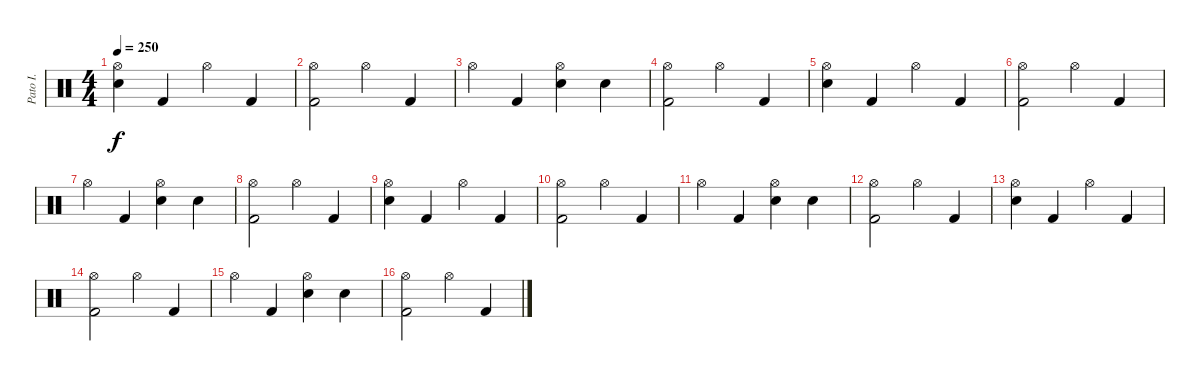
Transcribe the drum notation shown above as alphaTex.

\track ("Pato I." "Pato I.") {instrument percussion}
\staff {score}
\articulation defaults
\ts (4 4)
\tempo 250
\clef neutral
\ks c
("Hi-Hat (open)" "Snare (hit) 2").4{dy f} "Kick (hit) 2".4 "Hi-Hat (open)".4 "Kick (hit) 2".4 |
("Hi-Hat (open)" "Kick (hit) 2").2 "Hi-Hat (open)".4 "Kick (hit) 2".4 |
"Hi-Hat (open)".4 "Kick (hit) 2".4 ("Hi-Hat (open)" "Snare (hit) 2").4 "Snare (hit) 2".4 |
("Hi-Hat (open)" "Kick (hit) 2").2 "Hi-Hat (open)".4 "Kick (hit) 2".4 |
("Hi-Hat (open)" "Snare (hit) 2").4 "Kick (hit) 2".4 "Hi-Hat (open)".4 "Kick (hit) 2".4 |
("Hi-Hat (open)" "Kick (hit) 2").2 "Hi-Hat (open)".4 "Kick (hit) 2".4 |
"Hi-Hat (open)".4 "Kick (hit) 2".4 ("Hi-Hat (open)" "Snare (hit) 2").4 "Snare (hit) 2".4 |
("Hi-Hat (open)" "Kick (hit) 2").2 "Hi-Hat (open)".4 "Kick (hit) 2".4 |
("Hi-Hat (open)" "Snare (hit) 2").4 "Kick (hit) 2".4 "Hi-Hat (open)".4 "Kick (hit) 2".4 |
("Hi-Hat (open)" "Kick (hit) 2").2 "Hi-Hat (open)".4 "Kick (hit) 2".4 |
"Hi-Hat (open)".4 "Kick (hit) 2".4 ("Hi-Hat (open)" "Snare (hit) 2").4 "Snare (hit) 2".4 |
("Hi-Hat (open)" "Kick (hit) 2").2 "Hi-Hat (open)".4 "Kick (hit) 2".4 |
("Hi-Hat (open)" "Snare (hit) 2").4 "Kick (hit) 2".4 "Hi-Hat (open)".4 "Kick (hit) 2".4 |
("Hi-Hat (open)" "Kick (hit) 2").2 "Hi-Hat (open)".4 "Kick (hit) 2".4 |
"Hi-Hat (open)".4 "Kick (hit) 2".4 ("Hi-Hat (open)" "Snare (hit) 2").4 "Snare (hit) 2".4 |
("Hi-Hat (open)" "Kick (hit) 2").2 "Hi-Hat (open)".4 "Kick (hit) 2".4
